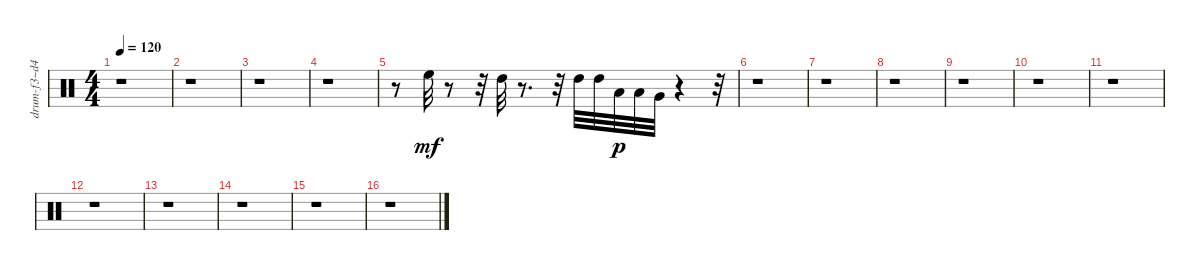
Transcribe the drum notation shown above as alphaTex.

\track ("drum-f3~d4" "drum-f3~d4") {instrument percussion}
\staff {score}
\articulation defaults
\ts (4 4)
\tempo 120
\clef neutral
\ks c
r.1{dy mf} |
r.1 |
r.1 |
r.1 |
r.8 "High Floor Tom (hit)".32 r.8 r.32 "High Tom (hit)".32 r.8{d} r.32 "High Tom (hit)".32 "High Tom (hit)".32 "Low Tom (hit)".32{dy p} "Low Tom (hit)".32 "Very Low Tom (hit)".32 r.4 r.32 |
r.1 |
r.1 |
r.1 |
r.1 |
r.1 |
r.1 |
r.1 |
r.1 |
r.1 |
r.1 |
r.1
